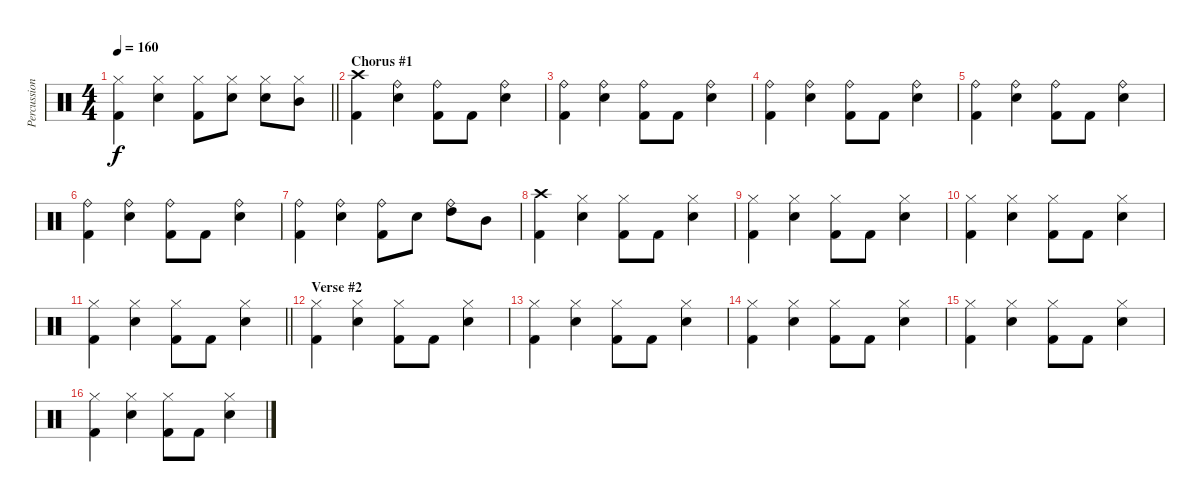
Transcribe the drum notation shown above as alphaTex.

\track ("Percussion" "Percussion") {instrument percussion}
\staff {score}
\articulation defaults
\ts (4 4)
\tempo 160
\clef neutral
\barLineRight lightlight
\ks c
("Hi-Hat (closed)" "Kick (hit) 2").4{dy f} ("Hi-Hat (closed)" "Electric Snare (hit)").4 ("Hi-Hat (closed)" "Kick (hit) 2").8 ("Hi-Hat (closed)" "Electric Snare (hit)").8 ("Hi-Hat (closed)" "Electric Snare (hit)").8 ("Hi-Hat (closed)" "Mid Tom (hit)").8 |
\section ("" "Chorus #1")
("Crash high (hit)" "Kick (hit) 2").4 ("Ride (bell)" "Electric Snare (hit)").4 ("Ride (bell)" "Kick (hit) 2").8 "Kick (hit) 2".8 ("Ride (bell)" "Electric Snare (hit)").4 |
("Ride (bell)" "Kick (hit) 2").4 ("Ride (bell)" "Electric Snare (hit)").4 ("Ride (bell)" "Kick (hit) 2").8 "Kick (hit) 2".8 ("Ride (bell)" "Electric Snare (hit)").4 |
("Ride (bell)" "Kick (hit) 2").4 ("Ride (bell)" "Electric Snare (hit)").4 ("Ride (bell)" "Kick (hit) 2").8 "Kick (hit) 2".8 ("Ride (bell)" "Electric Snare (hit)").4 |
("Ride (bell)" "Kick (hit) 2").4 ("Ride (bell)" "Electric Snare (hit)").4 ("Ride (bell)" "Kick (hit) 2").8 "Kick (hit) 2".8 ("Ride (bell)" "Electric Snare (hit)").4 |
("Ride (bell)" "Kick (hit) 2").4 ("Ride (bell)" "Electric Snare (hit)").4 ("Ride (bell)" "Kick (hit) 2").8 "Kick (hit) 2".8 ("Ride (bell)" "Electric Snare (hit)").4 |
("Ride (bell)" "Kick (hit) 2").4 ("Ride (bell)" "Electric Snare (hit)").4 ("Ride (bell)" "Kick (hit) 2").8 "Electric Snare (hit)".8 ("Ride (bell)" "High Tom (hit)").8 "Mid Tom (hit)".8 |
("Crash high (hit)" "Kick (hit) 2").4 ("Hi-Hat (closed)" "Electric Snare (hit)").4 ("Hi-Hat (closed)" "Kick (hit) 2").8 "Kick (hit) 2".8 ("Hi-Hat (closed)" "Electric Snare (hit)").4 |
("Hi-Hat (closed)" "Kick (hit) 2").4 ("Hi-Hat (closed)" "Electric Snare (hit)").4 ("Hi-Hat (closed)" "Kick (hit) 2").8 "Kick (hit) 2".8 ("Hi-Hat (closed)" "Electric Snare (hit)").4 |
("Hi-Hat (closed)" "Kick (hit) 2").4 ("Hi-Hat (closed)" "Electric Snare (hit)").4 ("Hi-Hat (closed)" "Kick (hit) 2").8 "Kick (hit) 2".8 ("Hi-Hat (closed)" "Electric Snare (hit)").4 |
\barLineRight lightlight
("Hi-Hat (closed)" "Kick (hit) 2").4 ("Hi-Hat (closed)" "Electric Snare (hit)").4 ("Hi-Hat (closed)" "Kick (hit) 2").8 "Kick (hit) 2".8 ("Hi-Hat (closed)" "Electric Snare (hit)").4 |
\section ("" "Verse #2")
("Hi-Hat (closed)" "Kick (hit) 2").4 ("Hi-Hat (closed)" "Electric Snare (hit)").4 ("Hi-Hat (closed)" "Kick (hit) 2").8 "Kick (hit) 2".8 ("Hi-Hat (closed)" "Electric Snare (hit)").4 |
("Hi-Hat (closed)" "Kick (hit) 2").4 ("Hi-Hat (closed)" "Electric Snare (hit)").4 ("Hi-Hat (closed)" "Kick (hit) 2").8 "Kick (hit) 2".8 ("Hi-Hat (closed)" "Electric Snare (hit)").4 |
("Hi-Hat (closed)" "Kick (hit) 2").4 ("Hi-Hat (closed)" "Electric Snare (hit)").4 ("Hi-Hat (closed)" "Kick (hit) 2").8 "Kick (hit) 2".8 ("Hi-Hat (closed)" "Electric Snare (hit)").4 |
("Hi-Hat (closed)" "Kick (hit) 2").4 ("Hi-Hat (closed)" "Electric Snare (hit)").4 ("Hi-Hat (closed)" "Kick (hit) 2").8 "Kick (hit) 2".8 ("Hi-Hat (closed)" "Electric Snare (hit)").4 |
("Hi-Hat (closed)" "Kick (hit) 2").4 ("Hi-Hat (closed)" "Electric Snare (hit)").4 ("Hi-Hat (closed)" "Kick (hit) 2").8 "Kick (hit) 2".8 ("Hi-Hat (closed)" "Electric Snare (hit)").4
